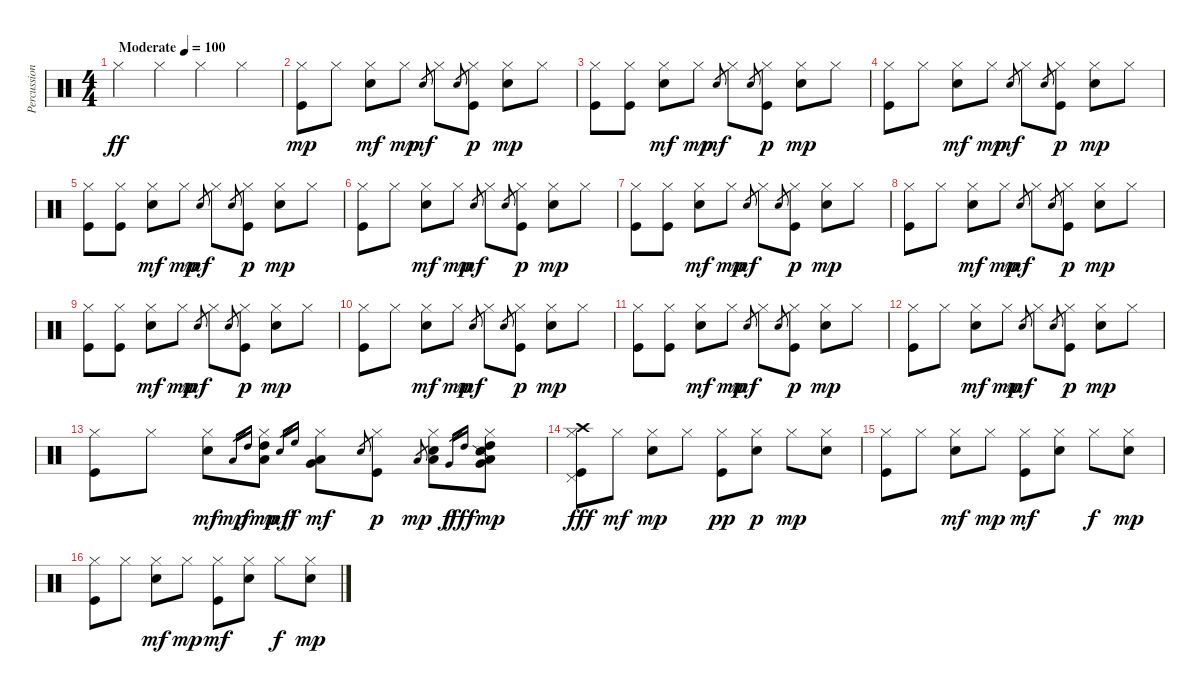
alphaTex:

\track ("Percussions" "Percussion") {instrument percussion}
\staff {score}
\articulation defaults
\ts (4 4)
\tempo (100 "Moderate")
\clef neutral
\ks c "Hi-Hat (closed)".4{dy ff} "Hi-Hat (closed)".4 "Hi-Hat (closed)".4 "Hi-Hat (closed)".4
|
("Kick (hit)" "Hi-Hat (closed)").8{dy mp} "Hi-Hat (closed)".8 ("Snare (hit) 2" "Hi-Hat (closed)").8{dy mf} "Hi-Hat (closed)".8{dy mp} "Snare (hit) 2".8{gr dy mf} "Hi-Hat (closed)".8 "Snare (hit) 2".8{gr} ("Kick (hit)" "Hi-Hat (closed)").8{dy p} ("Snare (hit) 2" "Hi-Hat (closed)").8{dy mp} "Hi-Hat (closed)".8 |
("Kick (hit)" "Hi-Hat (closed)").8 ("Kick (hit)" "Hi-Hat (closed)").8 ("Snare (hit) 2" "Hi-Hat (closed)").8{dy mf} "Hi-Hat (closed)".8{dy mp} "Snare (hit) 2".8{gr dy mf} "Hi-Hat (closed)".8 "Snare (hit) 2".8{gr} ("Kick (hit)" "Hi-Hat (closed)").8{dy p} ("Snare (hit) 2" "Hi-Hat (closed)").8{dy mp} "Hi-Hat (closed)".8 |
("Kick (hit)" "Hi-Hat (closed)").8 "Hi-Hat (closed)".8 ("Snare (hit) 2" "Hi-Hat (closed)").8{dy mf} "Hi-Hat (closed)".8{dy mp} "Snare (hit) 2".8{gr dy mf} "Hi-Hat (closed)".8 "Snare (hit) 2".8{gr} ("Kick (hit)" "Hi-Hat (closed)").8{dy p} ("Snare (hit) 2" "Hi-Hat (closed)").8{dy mp} "Hi-Hat (closed)".8 |
("Kick (hit)" "Hi-Hat (closed)").8 ("Kick (hit)" "Hi-Hat (closed)").8 ("Snare (hit) 2" "Hi-Hat (closed)").8{dy mf} "Hi-Hat (closed)".8{dy mp} "Snare (hit) 2".8{gr dy mf} "Hi-Hat (closed)".8 "Snare (hit) 2".8{gr} ("Kick (hit)" "Hi-Hat (closed)").8{dy p} ("Snare (hit) 2" "Hi-Hat (closed)").8{dy mp} "Hi-Hat (closed)".8 |
("Kick (hit)" "Hi-Hat (closed)").8 "Hi-Hat (closed)".8 ("Snare (hit) 2" "Hi-Hat (closed)").8{dy mf} "Hi-Hat (closed)".8{dy mp} "Snare (hit) 2".8{gr dy mf} "Hi-Hat (closed)".8 "Snare (hit) 2".8{gr} ("Kick (hit)" "Hi-Hat (closed)").8{dy p} ("Snare (hit) 2" "Hi-Hat (closed)").8{dy mp} "Hi-Hat (closed)".8 |
("Kick (hit)" "Hi-Hat (closed)").8 ("Kick (hit)" "Hi-Hat (closed)").8 ("Snare (hit) 2" "Hi-Hat (closed)").8{dy mf} "Hi-Hat (closed)".8{dy mp} "Snare (hit) 2".8{gr dy mf} "Hi-Hat (closed)".8 "Snare (hit) 2".8{gr} ("Kick (hit)" "Hi-Hat (closed)").8{dy p} ("Snare (hit) 2" "Hi-Hat (closed)").8{dy mp} "Hi-Hat (closed)".8 |
("Kick (hit)" "Hi-Hat (closed)").8 "Hi-Hat (closed)".8 ("Snare (hit) 2" "Hi-Hat (closed)").8{dy mf} "Hi-Hat (closed)".8{dy mp} "Snare (hit) 2".8{gr dy mf} "Hi-Hat (closed)".8 "Snare (hit) 2".8{gr} ("Kick (hit)" "Hi-Hat (closed)").8{dy p} ("Snare (hit) 2" "Hi-Hat (closed)").8{dy mp} "Hi-Hat (closed)".8 |
("Kick (hit)" "Hi-Hat (closed)").8 ("Kick (hit)" "Hi-Hat (closed)").8 ("Snare (hit) 2" "Hi-Hat (closed)").8{dy mf} "Hi-Hat (closed)".8{dy mp} "Snare (hit) 2".8{gr dy mf} "Hi-Hat (closed)".8 "Snare (hit) 2".8{gr} ("Kick (hit)" "Hi-Hat (closed)").8{dy p} ("Snare (hit) 2" "Hi-Hat (closed)").8{dy mp} "Hi-Hat (closed)".8 |
("Kick (hit)" "Hi-Hat (closed)").8 "Hi-Hat (closed)".8 ("Snare (hit) 2" "Hi-Hat (closed)").8{dy mf} "Hi-Hat (closed)".8{dy mp} "Snare (hit) 2".8{gr dy mf} "Hi-Hat (closed)".8 "Snare (hit) 2".8{gr} ("Kick (hit)" "Hi-Hat (closed)").8{dy p} ("Snare (hit) 2" "Hi-Hat (closed)").8{dy mp} "Hi-Hat (closed)".8 |
("Kick (hit)" "Hi-Hat (closed)").8 ("Kick (hit)" "Hi-Hat (closed)").8 ("Snare (hit) 2" "Hi-Hat (closed)").8{dy mf} "Hi-Hat (closed)".8{dy mp} "Snare (hit) 2".8{gr dy mf} "Hi-Hat (closed)".8 "Snare (hit) 2".8{gr} ("Kick (hit)" "Hi-Hat (closed)").8{dy p} ("Snare (hit) 2" "Hi-Hat (closed)").8{dy mp} "Hi-Hat (closed)".8 |
("Kick (hit)" "Hi-Hat (closed)").8 "Hi-Hat (closed)".8 ("Snare (hit) 2" "Hi-Hat (closed)").8{dy mf} "Hi-Hat (closed)".8{dy mp} "Snare (hit) 2".8{gr dy mf} "Hi-Hat (closed)".8 "Snare (hit) 2".8{gr} ("Kick (hit)" "Hi-Hat (closed)").8{dy p} ("Snare (hit) 2" "Hi-Hat (closed)").8{dy mp} "Hi-Hat (closed)".8 |
("Kick (hit)" "Hi-Hat (closed)").8 "Hi-Hat (closed)".8 ("Snare (hit) 2" "Hi-Hat (closed)").8{dy mf} "Low Tom (hit)".16{gr dy mp} "High Tom (hit)".16{gr dy f} ("Hi-Hat (closed)" "Low Tom (hit)" "High Tom (hit)").8{dy mp} "Snare (hit) 2".16{gr dy mf} "High Floor Tom (hit)".16{gr dy f} ("Hi-Hat (closed)" "Very Low Tom (hit)" "Low Tom (hit)").8{dy mf} "Snare (hit) 2".8{gr} ("Kick (hit)" "Hi-Hat (closed)").8{dy p} "Low Tom (hit)".8{gr dy mp} ("Snare (hit) 2" "Hi-Hat (closed)" "Low Tom (hit)").8 "Very Low Tom (hit)".16{gr dy f} "High Tom (hit)".16{gr dy fff} ("Snare (side stick) 2" "Very Low Tom (hit)" "Low Floor Tom (hit)" "Hi-Hat (closed)" "High Tom (hit)").8{dy mp} |
("Kick (hit)" "Hi-Hat (closed)" "Pedal Hi-Hat (hit)" "Crash high (hit)").8{dy fff} "Hi-Hat (closed)".8{dy mf} ("Snare (hit) 2" "Hi-Hat (closed)").8{dy mp} "Hi-Hat (closed)".8 ("Kick (hit)" "Hi-Hat (closed)").8{dy pp} ("Snare (hit) 2" "Hi-Hat (closed)").8{dy p} "Hi-Hat (closed)".8{dy mp} ("Snare (hit) 2" "Hi-Hat (closed)").8 |
("Kick (hit)" "Hi-Hat (closed)").8 "Hi-Hat (closed)".8 ("Snare (hit) 2" "Hi-Hat (closed)").8{dy mf} "Hi-Hat (closed)".8{dy mp} ("Kick (hit)" "Hi-Hat (closed)").8{dy mf} ("Snare (hit) 2" "Hi-Hat (closed)").8 "Hi-Hat (closed)".8{dy f} ("Snare (hit) 2" "Hi-Hat (closed)").8{dy mp} |
("Kick (hit)" "Hi-Hat (closed)").8 "Hi-Hat (closed)".8 ("Snare (hit) 2" "Hi-Hat (closed)").8{dy mf} "Hi-Hat (closed)".8{dy mp} ("Kick (hit)" "Hi-Hat (closed)").8{dy mf} ("Snare (hit) 2" "Hi-Hat (closed)").8 "Hi-Hat (closed)".8{dy f} ("Snare (hit) 2" "Hi-Hat (closed)").8{dy mp}
